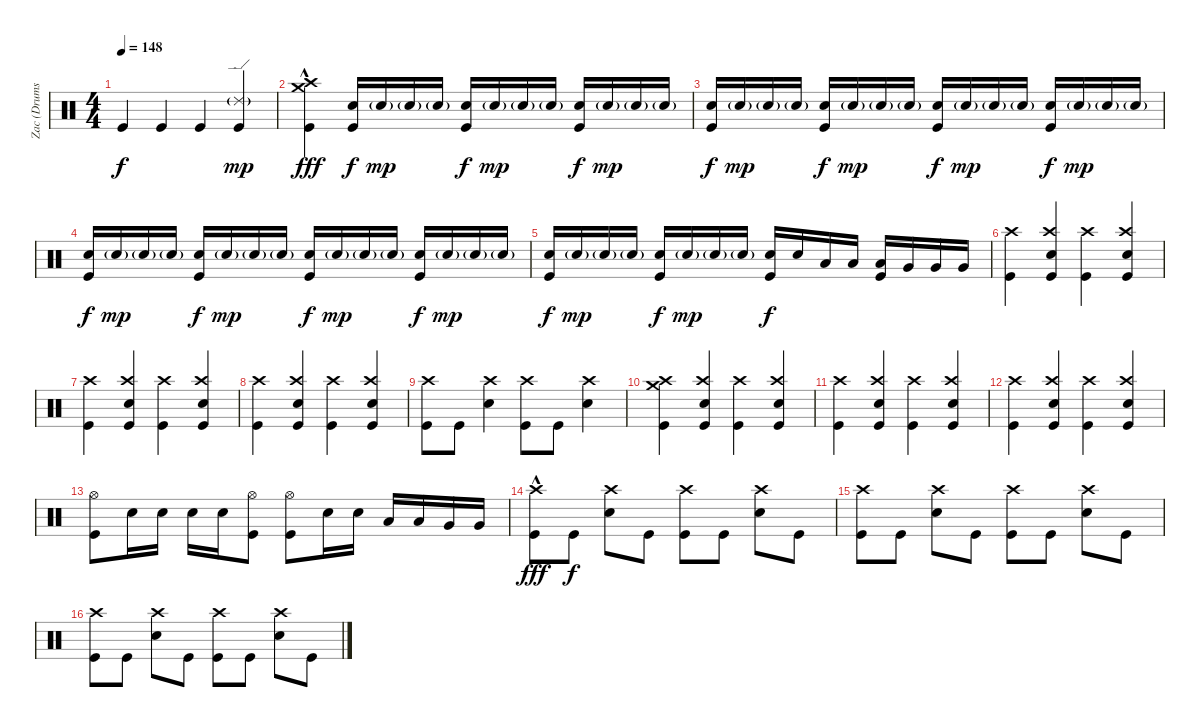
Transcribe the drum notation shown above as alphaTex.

\track ("Zac (Drums)" "Zac (Drums") {instrument percussion}
\staff {score}
\articulation defaults
\ts (4 4)
\tempo 148
\clef neutral
\ks c "Kick (hit)".4{dy f} "Kick (hit)".4 "Kick (hit)".4
("Ride (edge) 2"{g} "Kick (hit)").4{dy mp} |
("Crash high (hit)"{hac} "Crash medium (hit)" "Kick (hit)").4{dy fff} ("Electric Snare (hit)" "Kick (hit)").16{dy f} "Electric Snare (hit)"{g}.16{dy mp} "Electric Snare (hit)"{g}.16 "Electric Snare (hit)"{g}.16 ("Electric Snare (hit)" "Kick (hit)").16{dy f} "Electric Snare (hit)"{g}.16{dy mp} "Electric Snare (hit)"{g}.16 "Electric Snare (hit)"{g}.16 ("Electric Snare (hit)" "Kick (hit)").16{dy f} "Electric Snare (hit)"{g}.16{dy mp} "Electric Snare (hit)"{g}.16 "Electric Snare (hit)"{g}.16 |
("Electric Snare (hit)" "Kick (hit)").16{dy f} "Electric Snare (hit)"{g}.16{dy mp} "Electric Snare (hit)"{g}.16 "Electric Snare (hit)"{g}.16 ("Electric Snare (hit)" "Kick (hit)").16{dy f} "Electric Snare (hit)"{g}.16{dy mp} "Electric Snare (hit)"{g}.16 "Electric Snare (hit)"{g}.16 ("Electric Snare (hit)" "Kick (hit)").16{dy f} "Electric Snare (hit)"{g}.16{dy mp} "Electric Snare (hit)"{g}.16 "Electric Snare (hit)"{g}.16 ("Electric Snare (hit)" "Kick (hit)").16{dy f} "Electric Snare (hit)"{g}.16{dy mp} "Electric Snare (hit)"{g}.16 "Electric Snare (hit)"{g}.16 |
("Electric Snare (hit)" "Kick (hit)").16{dy f} "Electric Snare (hit)"{g}.16{dy mp} "Electric Snare (hit)"{g}.16 "Electric Snare (hit)"{g}.16 ("Electric Snare (hit)" "Kick (hit)").16{dy f} "Electric Snare (hit)"{g}.16{dy mp} "Electric Snare (hit)"{g}.16 "Electric Snare (hit)"{g}.16 ("Electric Snare (hit)" "Kick (hit)").16{dy f} "Electric Snare (hit)"{g}.16{dy mp} "Electric Snare (hit)"{g}.16 "Electric Snare (hit)"{g}.16 ("Electric Snare (hit)" "Kick (hit)").16{dy f} "Electric Snare (hit)"{g}.16{dy mp} "Electric Snare (hit)"{g}.16 "Electric Snare (hit)"{g}.16 |
("Electric Snare (hit)" "Kick (hit)").16{dy f} "Electric Snare (hit)"{g}.16{dy mp} "Electric Snare (hit)"{g}.16 "Electric Snare (hit)"{g}.16 ("Electric Snare (hit)" "Kick (hit)").16{dy f} "Electric Snare (hit)"{g}.16{dy mp} "Electric Snare (hit)"{g}.16 "Electric Snare (hit)"{g}.16 ("Electric Snare (hit)" "Kick (hit)").16{dy f} "Electric Snare (hit)".16 "Low Tom (hit)".16 "Low Tom (hit)".16 ("Low Tom (hit)" "Kick (hit)").16 "Very Low Tom (hit)".16 "Very Low Tom (hit)".16 "Very Low Tom (hit)".16 |
("Crash high (hit)" "Kick (hit)").4 ("Crash high (hit)" "Electric Snare (hit)" "Kick (hit)").4 ("Crash high (hit)" "Kick (hit)").4 ("Crash high (hit)" "Electric Snare (hit)" "Kick (hit)").4 |
("Crash high (hit)" "Kick (hit)").4 ("Crash high (hit)" "Electric Snare (hit)" "Kick (hit)").4 ("Crash high (hit)" "Kick (hit)").4 ("Crash high (hit)" "Electric Snare (hit)" "Kick (hit)").4 |
("Crash high (hit)" "Kick (hit)").4 ("Crash high (hit)" "Electric Snare (hit)" "Kick (hit)").4 ("Crash high (hit)" "Kick (hit)").4 ("Crash high (hit)" "Electric Snare (hit)" "Kick (hit)").4 |
("Crash high (hit)" "Kick (hit)").8 "Kick (hit)".8 ("Crash high (hit)" "Electric Snare (hit)").4 ("Crash high (hit)" "Kick (hit)").8 "Kick (hit)".8 ("Crash high (hit)" "Electric Snare (hit)").4 |
("Crash high (hit)" "Crash medium (hit)" "Kick (hit)").4 ("Crash high (hit)" "Electric Snare (hit)" "Kick (hit)").4 ("Crash high (hit)" "Kick (hit)").4 ("Crash high (hit)" "Electric Snare (hit)" "Kick (hit)").4 |
("Crash high (hit)" "Kick (hit)").4 ("Crash high (hit)" "Electric Snare (hit)" "Kick (hit)").4 ("Crash high (hit)" "Kick (hit)").4 ("Crash high (hit)" "Electric Snare (hit)" "Kick (hit)").4 |
("Crash high (hit)" "Kick (hit)").4 ("Crash high (hit)" "Electric Snare (hit)" "Kick (hit)").4 ("Crash high (hit)" "Kick (hit)").4 ("Crash high (hit)" "Electric Snare (hit)" "Kick (hit)").4 |
("Hi-Hat (open)" "Kick (hit)").8 "Electric Snare (hit)".16 "Electric Snare (hit)".16 "Electric Snare (hit)".16 "Electric Snare (hit)".16 ("Hi-Hat (open)" "Kick (hit)").8 ("Hi-Hat (open)" "Kick (hit)").8 "Electric Snare (hit)".16 "Electric Snare (hit)".16 "Low Tom (hit)".16 "Low Tom (hit)".16 "Very Low Tom (hit)".16 "Very Low Tom (hit)".16 |
("Crash high (hit)"{hac} "Kick (hit)").8{dy fff} "Kick (hit)".8{dy f} ("Crash high (hit)" "Electric Snare (hit)").8 "Kick (hit)".8 ("Crash high (hit)" "Kick (hit)").8 "Kick (hit)".8 ("Crash high (hit)" "Electric Snare (hit)").8 "Kick (hit)".8 |
("Crash high (hit)" "Kick (hit)").8 "Kick (hit)".8 ("Crash high (hit)" "Electric Snare (hit)").8 "Kick (hit)".8 ("Crash high (hit)" "Kick (hit)").8 "Kick (hit)".8 ("Crash high (hit)" "Electric Snare (hit)").8 "Kick (hit)".8 |
("Crash high (hit)" "Kick (hit)").8 "Kick (hit)".8 ("Crash high (hit)" "Electric Snare (hit)").8 "Kick (hit)".8 ("Crash high (hit)" "Kick (hit)").8 "Kick (hit)".8 ("Crash high (hit)" "Electric Snare (hit)").8 "Kick (hit)".8
